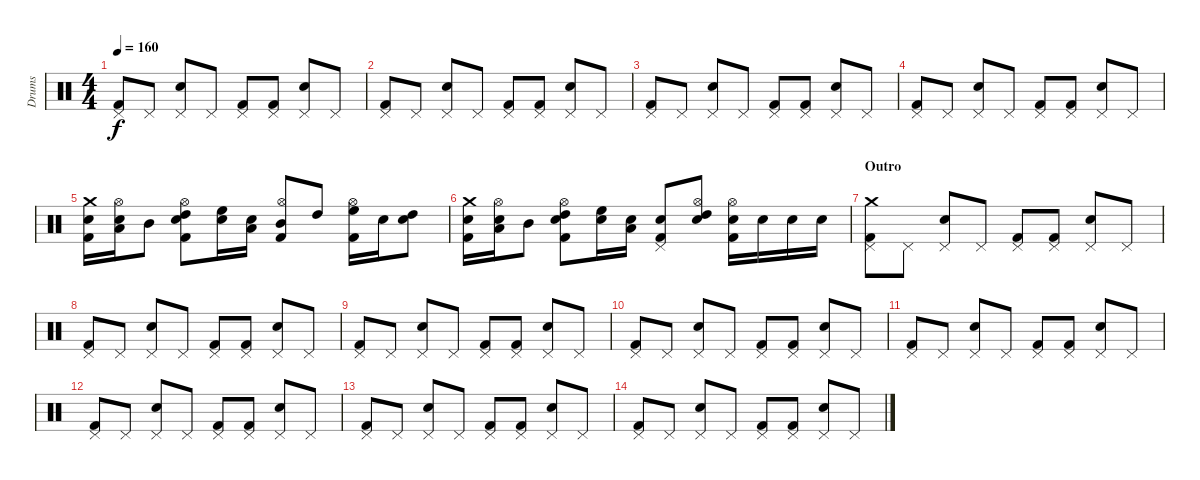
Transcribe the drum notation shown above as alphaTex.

\track ("Drums" "Drums") {instrument percussion}
\staff {score}
\articulation defaults
\ts (4 4)
\tempo 160
\clef neutral
\ks c
("Kick (hit) 2" "Pedal Hi-Hat (hit)").8{dy f} "Pedal Hi-Hat (hit)".8 ("Electric Snare (hit)" "Pedal Hi-Hat (hit)").8 "Pedal Hi-Hat (hit)".8 ("Kick (hit) 2" "Pedal Hi-Hat (hit)").8 ("Kick (hit) 2" "Pedal Hi-Hat (hit)").8 ("Electric Snare (hit)" "Pedal Hi-Hat (hit)").8 "Pedal Hi-Hat (hit)".8 |
("Kick (hit) 2" "Pedal Hi-Hat (hit)").8 "Pedal Hi-Hat (hit)".8 ("Electric Snare (hit)" "Pedal Hi-Hat (hit)").8 "Pedal Hi-Hat (hit)".8 ("Kick (hit) 2" "Pedal Hi-Hat (hit)").8 ("Kick (hit) 2" "Pedal Hi-Hat (hit)").8 ("Electric Snare (hit)" "Pedal Hi-Hat (hit)").8 "Pedal Hi-Hat (hit)".8 |
("Kick (hit) 2" "Pedal Hi-Hat (hit)").8 "Pedal Hi-Hat (hit)".8 ("Electric Snare (hit)" "Pedal Hi-Hat (hit)").8 "Pedal Hi-Hat (hit)".8 ("Kick (hit) 2" "Pedal Hi-Hat (hit)").8 ("Kick (hit) 2" "Pedal Hi-Hat (hit)").8 ("Electric Snare (hit)" "Pedal Hi-Hat (hit)").8 "Pedal Hi-Hat (hit)".8 |
("Kick (hit) 2" "Pedal Hi-Hat (hit)").8 "Pedal Hi-Hat (hit)".8 ("Electric Snare (hit)" "Pedal Hi-Hat (hit)").8 "Pedal Hi-Hat (hit)".8 ("Kick (hit) 2" "Pedal Hi-Hat (hit)").8 ("Kick (hit) 2" "Pedal Hi-Hat (hit)").8 ("Electric Snare (hit)" "Pedal Hi-Hat (hit)").8 "Pedal Hi-Hat (hit)".8 |
("Kick (hit) 2" "Crash medium (hit)" "Electric Snare (hit)").16 ("Low Tom (hit)" "Hi-Hat (open)" "Electric Snare (hit)").16 "Mid Tom (hit)".8 ("High Tom (hit)" "Hi-Hat (open)" "Electric Snare (hit)" "Kick (hit) 2").8 ("High Floor Tom (hit)" "Electric Snare (hit)").16 ("Low Tom (hit)" "Electric Snare (hit)").16 ("Mid Tom (hit)" "Hi-Hat (open)" "Kick (hit) 2").8 "High Tom (hit)".8 ("High Floor Tom (hit)" "Hi-Hat (open)" "Kick (hit) 2").16 "Electric Snare (hit)".16 ("Electric Snare (hit)" "High Tom (hit)").8 |
("Kick (hit) 2" "Electric Snare (hit)" "Crash medium (hit)").16 ("Low Tom (hit)" "Hi-Hat (open)" "Electric Snare (hit)").16 "Mid Tom (hit)".8 ("High Tom (hit)" "Hi-Hat (open)" "Electric Snare (hit)" "Kick (hit) 2").8 ("High Floor Tom (hit)" "Electric Snare (hit)").16 ("Low Tom (hit)" "Electric Snare (hit)").16 ("Electric Snare (hit)" "Pedal Hi-Hat (hit)" "Kick (hit) 2").8 ("High Tom (hit)" "Electric Snare (hit)" "Hi-Hat (open)").8 ("Electric Snare (hit)" "Hi-Hat (open)" "Kick (hit) 2").16 "Electric Snare (hit)".16 "Electric Snare (hit)".16 "Electric Snare (hit)".16 |
\section ("" "Outro")
("Kick (hit) 2" "Pedal Hi-Hat (hit)" "Crash medium (hit)").8 "Pedal Hi-Hat (hit)".8 ("Electric Snare (hit)" "Pedal Hi-Hat (hit)").8 "Pedal Hi-Hat (hit)".8 ("Kick (hit) 2" "Pedal Hi-Hat (hit)").8 ("Kick (hit) 2" "Pedal Hi-Hat (hit)").8 ("Electric Snare (hit)" "Pedal Hi-Hat (hit)").8 "Pedal Hi-Hat (hit)".8 |
("Kick (hit) 2" "Pedal Hi-Hat (hit)").8 "Pedal Hi-Hat (hit)".8 ("Electric Snare (hit)" "Pedal Hi-Hat (hit)").8 "Pedal Hi-Hat (hit)".8 ("Kick (hit) 2" "Pedal Hi-Hat (hit)").8 ("Kick (hit) 2" "Pedal Hi-Hat (hit)").8 ("Electric Snare (hit)" "Pedal Hi-Hat (hit)").8 "Pedal Hi-Hat (hit)".8 |
("Kick (hit) 2" "Pedal Hi-Hat (hit)").8 "Pedal Hi-Hat (hit)".8 ("Electric Snare (hit)" "Pedal Hi-Hat (hit)").8 "Pedal Hi-Hat (hit)".8 ("Kick (hit) 2" "Pedal Hi-Hat (hit)").8 ("Kick (hit) 2" "Pedal Hi-Hat (hit)").8 ("Electric Snare (hit)" "Pedal Hi-Hat (hit)").8 "Pedal Hi-Hat (hit)".8 |
("Kick (hit) 2" "Pedal Hi-Hat (hit)").8 "Pedal Hi-Hat (hit)".8 ("Electric Snare (hit)" "Pedal Hi-Hat (hit)").8 "Pedal Hi-Hat (hit)".8 ("Kick (hit) 2" "Pedal Hi-Hat (hit)").8 ("Kick (hit) 2" "Pedal Hi-Hat (hit)").8 ("Electric Snare (hit)" "Pedal Hi-Hat (hit)").8 "Pedal Hi-Hat (hit)".8 |
("Kick (hit) 2" "Pedal Hi-Hat (hit)").8 "Pedal Hi-Hat (hit)".8 ("Electric Snare (hit)" "Pedal Hi-Hat (hit)").8 "Pedal Hi-Hat (hit)".8 ("Kick (hit) 2" "Pedal Hi-Hat (hit)").8 ("Kick (hit) 2" "Pedal Hi-Hat (hit)").8 ("Electric Snare (hit)" "Pedal Hi-Hat (hit)").8 "Pedal Hi-Hat (hit)".8 |
("Kick (hit) 2" "Pedal Hi-Hat (hit)").8 "Pedal Hi-Hat (hit)".8 ("Electric Snare (hit)" "Pedal Hi-Hat (hit)").8 "Pedal Hi-Hat (hit)".8 ("Kick (hit) 2" "Pedal Hi-Hat (hit)").8 ("Kick (hit) 2" "Pedal Hi-Hat (hit)").8 ("Electric Snare (hit)" "Pedal Hi-Hat (hit)").8 "Pedal Hi-Hat (hit)".8 |
("Kick (hit) 2" "Pedal Hi-Hat (hit)").8 "Pedal Hi-Hat (hit)".8 ("Electric Snare (hit)" "Pedal Hi-Hat (hit)").8 "Pedal Hi-Hat (hit)".8 ("Kick (hit) 2" "Pedal Hi-Hat (hit)").8 ("Kick (hit) 2" "Pedal Hi-Hat (hit)").8 ("Electric Snare (hit)" "Pedal Hi-Hat (hit)").8 "Pedal Hi-Hat (hit)".8 |
("Kick (hit) 2" "Pedal Hi-Hat (hit)").8 "Pedal Hi-Hat (hit)".8 ("Electric Snare (hit)" "Pedal Hi-Hat (hit)").8 "Pedal Hi-Hat (hit)".8 ("Kick (hit) 2" "Pedal Hi-Hat (hit)").8 ("Kick (hit) 2" "Pedal Hi-Hat (hit)").8 ("Electric Snare (hit)" "Pedal Hi-Hat (hit)").8 "Pedal Hi-Hat (hit)".8
